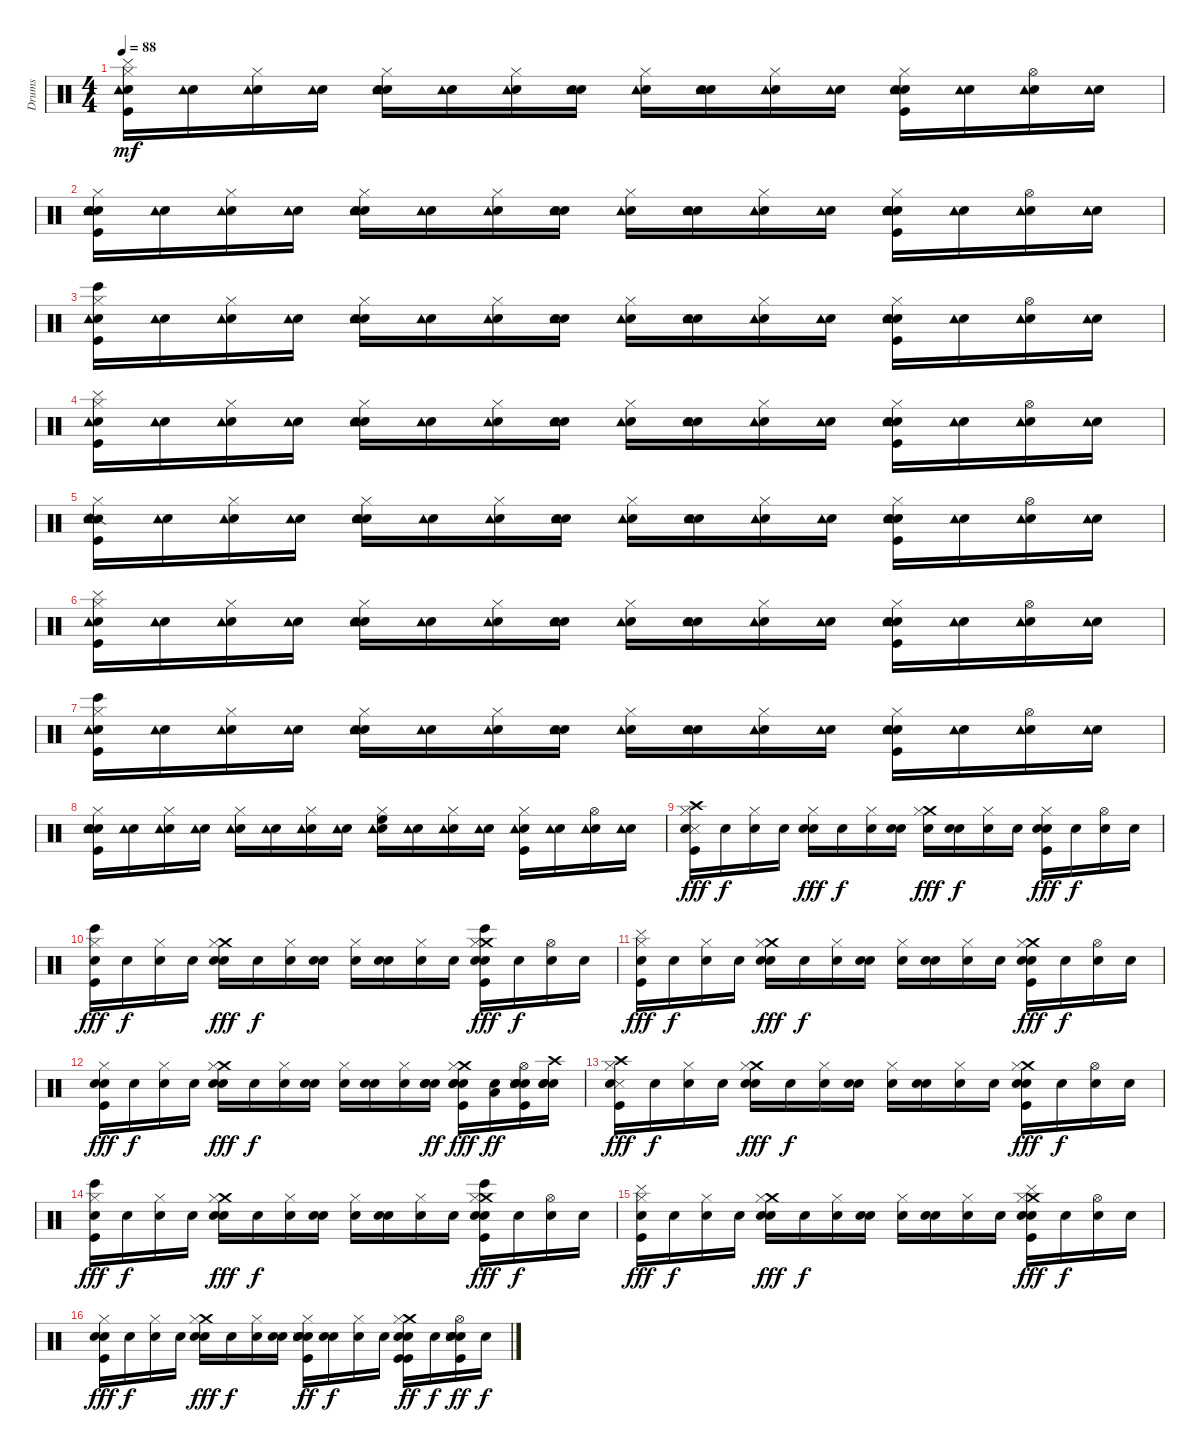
\track ("Drums" "Drums") {instrument percussion}
\staff {score}
\articulation defaults
\ts (4 4)
\tempo 88
\clef neutral
\ks c
("Cymbal (hit)" "Snare (hit) 2" "Hi-Hat (closed)" "Kick (hit)" "Tambourine (hit)").16{dy mf} ("Snare (hit) 2" "Tambourine (hit)").16 ("Snare (hit) 2" "Hi-Hat (closed)" "Tambourine (hit)").16 ("Snare (hit) 2" "Tambourine (hit)").16 ("Snare (hit) 2" "Hand Clap (hit)" "Hi-Hat (closed)" "Tambourine (hit)").16 ("Snare (hit) 2" "Tambourine (hit)").16 ("Snare (hit) 2" "Hi-Hat (closed)" "Tambourine (hit)").16 ("Snare (hit) 2" "Hand Clap (hit)" "Tambourine (hit)").16 ("Snare (hit) 2" "Hi-Hat (closed)" "Tambourine (hit)").16 ("Snare (hit) 2" "Hand Clap (hit)" "Tambourine (hit)").16 ("Snare (hit) 2" "Hi-Hat (closed)" "Tambourine (hit)").16 ("Snare (hit) 2" "Tambourine (hit)").16 ("Snare (hit) 2" "Hand Clap (hit)" "Hi-Hat (closed)" "Kick (hit)" "Tambourine (hit)").16 ("Snare (hit) 2" "Tambourine (hit)").16 ("Snare (hit) 2" "Hi-Hat (open)" "Tambourine (hit)").16 ("Snare (hit) 2" "Tambourine (hit)").16 |
("Snare (hit) 2" "Snare (hit) 2" "Hi-Hat (closed)" "Kick (hit)" "Tambourine (hit)").16 ("Snare (hit) 2" "Tambourine (hit)").16 ("Snare (hit) 2" "Hi-Hat (closed)" "Tambourine (hit)").16 ("Snare (hit) 2" "Tambourine (hit)").16 ("Snare (hit) 2" "Hand Clap (hit)" "Hi-Hat (closed)" "Tambourine (hit)").16 ("Snare (hit) 2" "Tambourine (hit)").16 ("Snare (hit) 2" "Hi-Hat (closed)" "Tambourine (hit)").16 ("Snare (hit) 2" "Hand Clap (hit)" "Tambourine (hit)").16 ("Snare (hit) 2" "Hi-Hat (closed)" "Tambourine (hit)").16 ("Snare (hit) 2" "Hand Clap (hit)" "Tambourine (hit)").16 ("Snare (hit) 2" "Hi-Hat (closed)" "Tambourine (hit)").16 ("Snare (hit) 2" "Tambourine (hit)").16 ("Snare (hit) 2" "Snare (hit) 2" "Hand Clap (hit)" "Hi-Hat (closed)" "Kick (hit)" "Tambourine (hit)").16 ("Snare (hit) 2" "Tambourine (hit)").16 ("Snare (hit) 2" "Hi-Hat (open)" "Tambourine (hit)").16 ("Snare (hit) 2" "Tambourine (hit)").16 |
("Bongo High (hit)" "Snare (hit) 2" "Hi-Hat (closed)" "Kick (hit)" "Tambourine (hit)").16 ("Snare (hit) 2" "Tambourine (hit)").16 ("Snare (hit) 2" "Hi-Hat (closed)" "Tambourine (hit)").16 ("Snare (hit) 2" "Tambourine (hit)").16 ("Snare (hit) 2" "Hand Clap (hit)" "Hi-Hat (closed)" "Tambourine (hit)").16 ("Snare (hit) 2" "Tambourine (hit)").16 ("Snare (hit) 2" "Hi-Hat (closed)" "Tambourine (hit)").16 ("Snare (hit) 2" "Hand Clap (hit)" "Tambourine (hit)").16 ("Snare (hit) 2" "Hi-Hat (closed)" "Tambourine (hit)").16 ("Snare (hit) 2" "Hand Clap (hit)" "Tambourine (hit)").16 ("Snare (hit) 2" "Hi-Hat (closed)" "Tambourine (hit)").16 ("Snare (hit) 2" "Tambourine (hit)").16 ("Snare (hit) 2" "Hand Clap (hit)" "Hi-Hat (closed)" "Kick (hit)" "Tambourine (hit)").16 ("Snare (hit) 2" "Tambourine (hit)").16 ("Snare (hit) 2" "Hi-Hat (open)" "Tambourine (hit)").16 ("Snare (hit) 2" "Tambourine (hit)").16 |
("Cymbal (hit)" "Snare (hit) 2" "Hi-Hat (closed)" "Kick (hit)" "Tambourine (hit)").16 ("Snare (hit) 2" "Tambourine (hit)").16 ("Snare (hit) 2" "Hi-Hat (closed)" "Tambourine (hit)").16 ("Snare (hit) 2" "Tambourine (hit)").16 ("Snare (hit) 2" "Hand Clap (hit)" "Hi-Hat (closed)" "Tambourine (hit)").16 ("Snare (hit) 2" "Tambourine (hit)").16 ("Snare (hit) 2" "Hi-Hat (closed)" "Tambourine (hit)").16 ("Snare (hit) 2" "Hand Clap (hit)" "Tambourine (hit)").16 ("Snare (hit) 2" "Hi-Hat (closed)" "Tambourine (hit)").16 ("Snare (hit) 2" "Hand Clap (hit)" "Tambourine (hit)").16 ("Snare (hit) 2" "Hi-Hat (closed)" "Tambourine (hit)").16 ("Snare (hit) 2" "Tambourine (hit)").16 ("Snare (hit) 2" "Hand Clap (hit)" "Hi-Hat (closed)" "Kick (hit)" "Tambourine (hit)").16 ("Snare (hit) 2" "Tambourine (hit)").16 ("Snare (hit) 2" "Hi-Hat (open)" "Tambourine (hit)").16 ("Snare (hit) 2" "Tambourine (hit)").16 |
("Snare (side stick) 2" "Snare (hit) 2" "Hi-Hat (closed)" "Kick (hit)" "Tambourine (hit)").16 ("Snare (hit) 2" "Tambourine (hit)").16 ("Snare (hit) 2" "Hi-Hat (closed)" "Tambourine (hit)").16 ("Snare (hit) 2" "Tambourine (hit)").16 ("Snare (hit) 2" "Hand Clap (hit)" "Hi-Hat (closed)" "Tambourine (hit)").16 ("Snare (hit) 2" "Tambourine (hit)").16 ("Snare (hit) 2" "Hi-Hat (closed)" "Tambourine (hit)").16 ("Snare (hit) 2" "Hand Clap (hit)" "Tambourine (hit)").16 ("Snare (hit) 2" "Hi-Hat (closed)" "Tambourine (hit)").16 ("Snare (hit) 2" "Hand Clap (hit)" "Tambourine (hit)").16 ("Snare (hit) 2" "Hi-Hat (closed)" "Tambourine (hit)").16 ("Snare (hit) 2" "Tambourine (hit)").16 ("Snare (hit) 2" "Hand Clap (hit)" "Hi-Hat (closed)" "Kick (hit)" "Tambourine (hit)").16 ("Snare (hit) 2" "Tambourine (hit)").16 ("Snare (hit) 2" "Hi-Hat (open)" "Tambourine (hit)").16 ("Snare (hit) 2" "Tambourine (hit)").16 |
("Cymbal (hit)" "Snare (hit) 2" "Hi-Hat (closed)" "Kick (hit)" "Tambourine (hit)").16 ("Snare (hit) 2" "Tambourine (hit)").16 ("Snare (hit) 2" "Hi-Hat (closed)" "Tambourine (hit)").16 ("Snare (hit) 2" "Tambourine (hit)").16 ("Snare (hit) 2" "Hand Clap (hit)" "Hi-Hat (closed)" "Tambourine (hit)").16 ("Snare (hit) 2" "Tambourine (hit)").16 ("Snare (hit) 2" "Hi-Hat (closed)" "Tambourine (hit)").16 ("Snare (hit) 2" "Hand Clap (hit)" "Tambourine (hit)").16 ("Snare (hit) 2" "Hi-Hat (closed)" "Tambourine (hit)").16 ("Snare (hit) 2" "Hand Clap (hit)" "Tambourine (hit)").16 ("Snare (hit) 2" "Hi-Hat (closed)" "Tambourine (hit)").16 ("Snare (hit) 2" "Tambourine (hit)").16 ("Snare (hit) 2" "Hand Clap (hit)" "Hi-Hat (closed)" "Kick (hit)" "Tambourine (hit)").16 ("Snare (hit) 2" "Tambourine (hit)").16 ("Snare (hit) 2" "Hi-Hat (open)" "Tambourine (hit)").16 ("Snare (hit) 2" "Tambourine (hit)").16 |
("Bongo High (hit)" "Snare (hit) 2" "Hi-Hat (closed)" "Kick (hit)" "Tambourine (hit)").16 ("Snare (hit) 2" "Tambourine (hit)").16 ("Snare (hit) 2" "Hi-Hat (closed)" "Tambourine (hit)").16 ("Snare (hit) 2" "Tambourine (hit)").16 ("Snare (hit) 2" "Hand Clap (hit)" "Hi-Hat (closed)" "Tambourine (hit)").16 ("Snare (hit) 2" "Tambourine (hit)").16 ("Snare (hit) 2" "Hi-Hat (closed)" "Tambourine (hit)").16 ("Snare (hit) 2" "Hand Clap (hit)" "Tambourine (hit)").16 ("Snare (hit) 2" "Hi-Hat (closed)" "Tambourine (hit)").16 ("Snare (hit) 2" "Hand Clap (hit)" "Tambourine (hit)").16 ("Snare (hit) 2" "Hi-Hat (closed)" "Tambourine (hit)").16 ("Snare (hit) 2" "Tambourine (hit)").16 ("Snare (hit) 2" "Hand Clap (hit)" "Hi-Hat (closed)" "Kick (hit)" "Tambourine (hit)").16 ("Snare (hit) 2" "Tambourine (hit)").16 ("Snare (hit) 2" "Hi-Hat (open)" "Tambourine (hit)").16 ("Snare (hit) 2" "Tambourine (hit)").16 |
("Snare (hit) 2" "Snare (hit) 2" "Hi-Hat (closed)" "Kick (hit)" "Tambourine (hit)").16{volume 9} ("Snare (hit) 2" "Tambourine (hit)").16 ("Snare (hit) 2" "Hi-Hat (closed)" "Tambourine (hit)").16 ("Snare (hit) 2" "Tambourine (hit)").16 ("Snare (hit) 2" "Hi-Hat (closed)" "Tambourine (hit)").16{volume 10} ("Snare (hit) 2" "Tambourine (hit)").16{volume 11} ("Snare (hit) 2" "Hi-Hat (closed)" "Tambourine (hit)").16{volume 12} ("Snare (hit) 2" "Tambourine (hit)").16{volume 13} ("Snare (hit) 2" "High Floor Tom (hit)" "Hi-Hat (closed)" "Tambourine (hit)").16{volume 14} ("Snare (hit) 2" "Tambourine (hit)").16 ("Snare (hit) 2" "Hi-Hat (closed)" "Tambourine (hit)").16 ("Snare (hit) 2" "Tambourine (hit)").16 ("Snare (hit) 2" "Hi-Hat (closed)" "Kick (hit)" "Tambourine (hit)").16 ("Snare (hit) 2" "Tambourine (hit)").16 ("Snare (hit) 2" "Hi-Hat (open)" "Tambourine (hit)").16 ("Snare (hit) 2" "Tambourine (hit)").16 |
("Metronome (hit)" "Snare (hit) 2" "Hi-Hat (closed)" "Kick (hit)" "Crash high (hit)").16{dy fff volume 12} "Snare (hit) 2".16{dy f} ("Snare (hit) 2" "Hi-Hat (closed)").16 "Snare (hit) 2".16 ("Snare (hit) 2" "Hand Clap (hit)" "Hi-Hat (closed)").16{dy fff} "Snare (hit) 2".16{dy f} ("Snare (hit) 2" "Hi-Hat (closed)").16 ("Snare (hit) 2" "Hand Clap (hit)").16 ("Snare (hit) 2" "Crash medium (hit)" "Hi-Hat (closed)").16{dy fff} ("Snare (hit) 2" "Hand Clap (hit)").16{dy f} ("Snare (hit) 2" "Hi-Hat (closed)").16 "Snare (hit) 2".16 ("Snare (hit) 2" "Electric Snare (hit)" "Hi-Hat (closed)" "Kick (hit)").16{dy fff} "Snare (hit) 2".16{dy f} ("Snare (hit) 2" "Hi-Hat (open)").16 "Snare (hit) 2".16 |
("Bongo High (hit)" "Snare (hit) 2" "Hi-Hat (closed)" "Kick (hit)").16{dy fff} "Snare (hit) 2".16{dy f} ("Snare (hit) 2" "Hi-Hat (closed)").16 "Snare (hit) 2".16 ("Snare (hit) 2" "Hand Clap (hit)" "Crash medium (hit)" "Hi-Hat (closed)").16{dy fff} "Snare (hit) 2".16{dy f} ("Snare (hit) 2" "Hi-Hat (closed)").16 ("Snare (hit) 2" "Hand Clap (hit)").16 ("Snare (hit) 2" "Hi-Hat (closed)").16 ("Snare (hit) 2" "Hand Clap (hit)").16 ("Snare (hit) 2" "Hi-Hat (closed)").16 "Snare (hit) 2".16 ("Bongo High (hit)" "Snare (hit) 2" "Electric Snare (hit)" "Crash medium (hit)" "Hi-Hat (closed)" "Kick (hit)").16{dy fff} "Snare (hit) 2".16{dy f} ("Snare (hit) 2" "Hi-Hat (open)").16 "Snare (hit) 2".16 |
("Cymbal (hit)" "Snare (hit) 2" "Hi-Hat (closed)" "Kick (hit)").16{dy fff} "Snare (hit) 2".16{dy f} ("Snare (hit) 2" "Hi-Hat (closed)").16 "Snare (hit) 2".16 ("Snare (hit) 2" "Hand Clap (hit)" "Crash medium (hit)" "Hi-Hat (closed)").16{dy fff} "Snare (hit) 2".16{dy f} ("Snare (hit) 2" "Hi-Hat (closed)").16 ("Snare (hit) 2" "Hand Clap (hit)").16 ("Snare (hit) 2" "Hi-Hat (closed)").16 ("Snare (hit) 2" "Hand Clap (hit)").16 ("Snare (hit) 2" "Hi-Hat (closed)").16 "Snare (hit) 2".16 ("Snare (hit) 2" "Electric Snare (hit)" "Crash medium (hit)" "Hi-Hat (closed)" "Kick (hit)").16{dy fff} "Snare (hit) 2".16{dy f} ("Snare (hit) 2" "Hi-Hat (open)").16 "Snare (hit) 2".16 |
("Snare (hit) 2" "Snare (hit) 2" "Hi-Hat (closed)" "Kick (hit)").16{dy fff} "Snare (hit) 2".16{dy f} ("Snare (hit) 2" "Hi-Hat (closed)").16 "Snare (hit) 2".16 ("Snare (hit) 2" "Hand Clap (hit)" "Crash medium (hit)" "Hi-Hat (closed)").16{dy fff} "Snare (hit) 2".16{dy f} ("Snare (hit) 2" "Hi-Hat (closed)").16 ("Snare (hit) 2" "Hand Clap (hit)").16 ("Snare (hit) 2" "Hi-Hat (closed)").16 ("Snare (hit) 2" "Hand Clap (hit)").16 ("Snare (hit) 2" "Hi-Hat (closed)").16 ("Snare (hit) 2" "Snare (hit) 2" "Electric Snare (hit)").16{dy ff} ("Snare (hit) 2" "Snare (hit) 2" "Electric Snare (hit)" "Crash medium (hit)" "Hi-Hat (closed)" "Kick (hit)").16{dy fff} ("Snare (hit) 2" "Low Tom (hit)").16{dy ff} ("Snare (hit) 2" "Hi-Hat (open)" "Kick (hit)" "Snare (side stick) 3" "Snare (hit) 2" "Electric Snare (hit)").16 ("Snare (hit) 2" "Snare (hit) 2" "Electric Snare (hit)" "Crash high (hit)").16 |
("Metronome (hit)" "Snare (hit) 2" "Hi-Hat (closed)" "Kick (hit)" "Crash high (hit)").16{dy fff} "Snare (hit) 2".16{dy f} ("Snare (hit) 2" "Hi-Hat (closed)").16 "Snare (hit) 2".16 ("Snare (hit) 2" "Hand Clap (hit)" "Crash medium (hit)" "Hi-Hat (closed)").16{dy fff} "Snare (hit) 2".16{dy f} ("Snare (hit) 2" "Hi-Hat (closed)").16 ("Snare (hit) 2" "Hand Clap (hit)").16 ("Snare (hit) 2" "Hi-Hat (closed)").16 ("Snare (hit) 2" "Hand Clap (hit)").16 ("Snare (hit) 2" "Hi-Hat (closed)").16 "Snare (hit) 2".16 ("Snare (hit) 2" "Electric Snare (hit)" "Crash medium (hit)" "Hi-Hat (closed)" "Kick (hit)").16{dy fff} "Snare (hit) 2".16{dy f} ("Snare (hit) 2" "Hi-Hat (open)").16 "Snare (hit) 2".16 |
("Bongo High (hit)" "Snare (hit) 2" "Hi-Hat (closed)" "Kick (hit)").16{dy fff} "Snare (hit) 2".16{dy f} ("Snare (hit) 2" "Hi-Hat (closed)").16 "Snare (hit) 2".16 ("Snare (hit) 2" "Hand Clap (hit)" "Crash medium (hit)" "Hi-Hat (closed)").16{dy fff} "Snare (hit) 2".16{dy f} ("Snare (hit) 2" "Hi-Hat (closed)").16 ("Snare (hit) 2" "Hand Clap (hit)").16 ("Snare (hit) 2" "Hi-Hat (closed)").16 ("Snare (hit) 2" "Hand Clap (hit)").16 ("Snare (hit) 2" "Hi-Hat (closed)").16 "Snare (hit) 2".16 ("Bongo High (hit)" "Snare (hit) 2" "Electric Snare (hit)" "Crash medium (hit)" "Hi-Hat (closed)" "Kick (hit)").16{dy fff} "Snare (hit) 2".16{dy f} ("Snare (hit) 2" "Hi-Hat (open)").16 "Snare (hit) 2".16 |
("Cymbal (hit)" "Snare (hit) 2" "Hi-Hat (closed)" "Kick (hit)").16{dy fff} "Snare (hit) 2".16{dy f} ("Snare (hit) 2" "Hi-Hat (closed)").16 "Snare (hit) 2".16 ("Snare (hit) 2" "Hand Clap (hit)" "Crash medium (hit)" "Hi-Hat (closed)").16{dy fff} "Snare (hit) 2".16{dy f} ("Snare (hit) 2" "Hi-Hat (closed)").16 ("Snare (hit) 2" "Hand Clap (hit)").16 ("Snare (hit) 2" "Hi-Hat (closed)").16 ("Snare (hit) 2" "Hand Clap (hit)").16 ("Snare (hit) 2" "Hi-Hat (closed)").16 "Snare (hit) 2".16 ("Cymbal (hit)" "Snare (hit) 2" "Electric Snare (hit)" "Crash medium (hit)" "Hi-Hat (closed)" "Kick (hit)").16{dy fff} "Snare (hit) 2".16{dy f} ("Snare (hit) 2" "Hi-Hat (open)").16 "Snare (hit) 2".16 |
("Snare (hit) 2" "Snare (hit) 2" "Hi-Hat (closed)" "Kick (hit)").16{dy fff} "Snare (hit) 2".16{dy f} ("Snare (hit) 2" "Hi-Hat (closed)").16 "Snare (hit) 2".16 ("Snare (hit) 2" "Hand Clap (hit)" "Crash medium (hit)" "Hi-Hat (closed)").16{dy fff} "Snare (hit) 2".16{dy f} ("Snare (hit) 2" "Hi-Hat (closed)").16 ("Snare (hit) 2" "Hand Clap (hit)").16 ("Snare (hit) 2" "Hi-Hat (closed)" "Kick (hit)" "Snare (side stick) 3" "Snare (hit) 2" "Electric Snare (hit)").16{dy ff} ("Snare (hit) 2" "Hand Clap (hit)").16{dy f} ("Snare (hit) 2" "Hi-Hat (closed)").16 "Snare (hit) 2".16 ("Snare (hit) 2" "Electric Snare (hit)" "Crash medium (hit)" "Hi-Hat (closed)" "Kick (hit)" "Kick (hit)").16{dy ff} "Snare (hit) 2".16{dy f} ("Snare (hit) 2" "Hi-Hat (open)" "Kick (hit)" "Snare (side stick) 3" "Snare (hit) 2" "Electric Snare (hit)").16{dy ff} "Snare (hit) 2".16{dy f}
